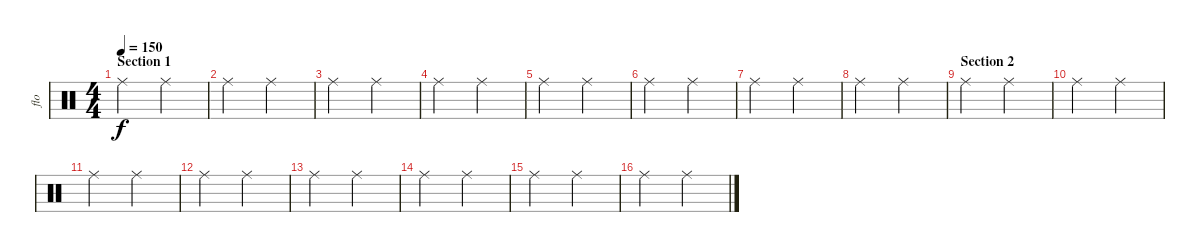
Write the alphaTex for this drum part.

\track ("flo" "flo") {instrument percussion}
\staff {score}
\articulation defaults
\ts (4 4)
\section ("" "Section 1")
\tempo 150
\clef neutral
\ks c "Ride (middle)".2{dy f} "Ride (middle)".2
|
"Ride (middle)".2 "Ride (middle)".2 |
"Ride (middle)".2 "Ride (middle)".2 |
"Ride (middle)".2 "Ride (middle)".2 |
"Ride (middle)".2 "Ride (middle)".2 |
"Ride (middle)".2 "Ride (middle)".2 |
"Ride (middle)".2 "Ride (middle)".2 |
"Ride (middle)".2 "Ride (middle)".2 |
\section ("" "Section 2")
"Ride (middle)".2 "Ride (middle)".2 |
"Ride (middle)".2 "Ride (middle)".2 |
"Ride (middle)".2 "Ride (middle)".2 |
"Ride (middle)".2 "Ride (middle)".2 |
"Ride (middle)".2 "Ride (middle)".2 |
"Ride (middle)".2 "Ride (middle)".2 |
"Ride (middle)".2 "Ride (middle)".2 |
"Ride (middle)".2 "Ride (middle)".2
